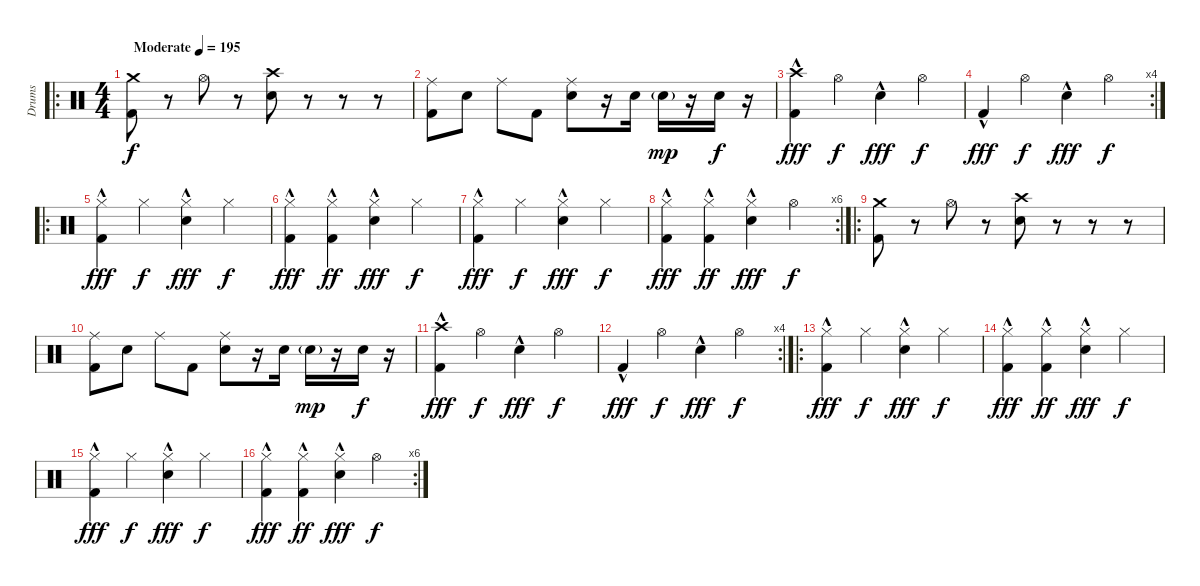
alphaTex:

\track ("Drums" "Drums") {instrument percussion}
\staff {score}
\articulation defaults
\ro
\ts (4 4)
\tempo (195 "Moderate")
\clef neutral
\ks c
("Crash medium (hit)" "Kick (hit) 2").8{dy f} r.8 "Hi-Hat (open)".8 r.8 ("Crash high (hit)" "Electric Snare (hit)").8 r.8 r.8 r.8 |
("Ride (middle)" "Kick (hit) 2").8 "Electric Snare (hit)".8 "Ride (middle)".8 "Kick (hit) 2".8 ("Ride (middle)" "Electric Snare (hit)").8 r.16 "Electric Snare (hit)".16 "Electric Snare (hit)"{g}.16{dy mp} r.16 "Electric Snare (hit)".16{dy f} r.16 |
("Crash high (hit)" "Kick (hit) 2"{hac}).4{dy fff} "Hi-Hat (open)".4{dy f} "Electric Snare (hit)"{hac}.4{dy fff} "Hi-Hat (open)".4{dy f} |
\rc 4 "Kick (hit) 2"{hac}.4{dy fff} "Hi-Hat (open)".4{dy f} "Electric Snare (hit)"{hac}.4{dy fff} "Hi-Hat (open)".4{dy f}
|
\ro
("Hi-Hat (closed)" "Kick (hit) 2"{hac}).4{dy fff} "Hi-Hat (closed)".4{dy f} ("Hi-Hat (closed)" "Electric Snare (hit)"{hac}).4{dy fff} "Hi-Hat (closed)".4{dy f} |
("Hi-Hat (closed)" "Kick (hit) 2"{hac}).4{dy fff} ("Hi-Hat (closed)" "Kick (hit) 2"{hac}).4{dy ff} ("Hi-Hat (closed)" "Electric Snare (hit)"{hac}).4{dy fff} "Hi-Hat (closed)".4{dy f} |
("Hi-Hat (closed)" "Kick (hit) 2"{hac}).4{dy fff} "Hi-Hat (closed)".4{dy f} ("Hi-Hat (closed)" "Electric Snare (hit)"{hac}).4{dy fff} "Hi-Hat (closed)".4{dy f} |
\rc 6
("Hi-Hat (closed)" "Kick (hit) 2"{hac}).4{dy fff} ("Hi-Hat (closed)" "Kick (hit) 2"{hac}).4{dy ff} ("Hi-Hat (closed)" "Electric Snare (hit)"{hac}).4{dy fff} "Hi-Hat (open)".4{dy f} |
\ro
("Crash medium (hit)" "Kick (hit) 2").8 r.8 "Hi-Hat (open)".8 r.8 ("Crash high (hit)" "Electric Snare (hit)").8 r.8 r.8 r.8 |
("Ride (middle)" "Kick (hit) 2").8 "Electric Snare (hit)".8 "Ride (middle)".8 "Kick (hit) 2".8 ("Ride (middle)" "Electric Snare (hit)").8 r.16 "Electric Snare (hit)".16 "Electric Snare (hit)"{g}.16{dy mp} r.16 "Electric Snare (hit)".16{dy f} r.16 |
("Crash high (hit)" "Kick (hit) 2"{hac}).4{dy fff} "Hi-Hat (open)".4{dy f} "Electric Snare (hit)"{hac}.4{dy fff} "Hi-Hat (open)".4{dy f} |
\rc 4 "Kick (hit) 2"{hac}.4{dy fff} "Hi-Hat (open)".4{dy f} "Electric Snare (hit)"{hac}.4{dy fff} "Hi-Hat (open)".4{dy f}
|
\ro
("Hi-Hat (closed)" "Kick (hit) 2"{hac}).4{dy fff} "Hi-Hat (closed)".4{dy f} ("Hi-Hat (closed)" "Electric Snare (hit)"{hac}).4{dy fff} "Hi-Hat (closed)".4{dy f} |
("Hi-Hat (closed)" "Kick (hit) 2"{hac}).4{dy fff} ("Hi-Hat (closed)" "Kick (hit) 2"{hac}).4{dy ff} ("Hi-Hat (closed)" "Electric Snare (hit)"{hac}).4{dy fff} "Hi-Hat (closed)".4{dy f} |
("Hi-Hat (closed)" "Kick (hit) 2"{hac}).4{dy fff} "Hi-Hat (closed)".4{dy f} ("Hi-Hat (closed)" "Electric Snare (hit)"{hac}).4{dy fff} "Hi-Hat (closed)".4{dy f} |
\rc 6
("Hi-Hat (closed)" "Kick (hit) 2"{hac}).4{dy fff} ("Hi-Hat (closed)" "Kick (hit) 2"{hac}).4{dy ff} ("Hi-Hat (closed)" "Electric Snare (hit)"{hac}).4{dy fff} "Hi-Hat (open)".4{dy f}
